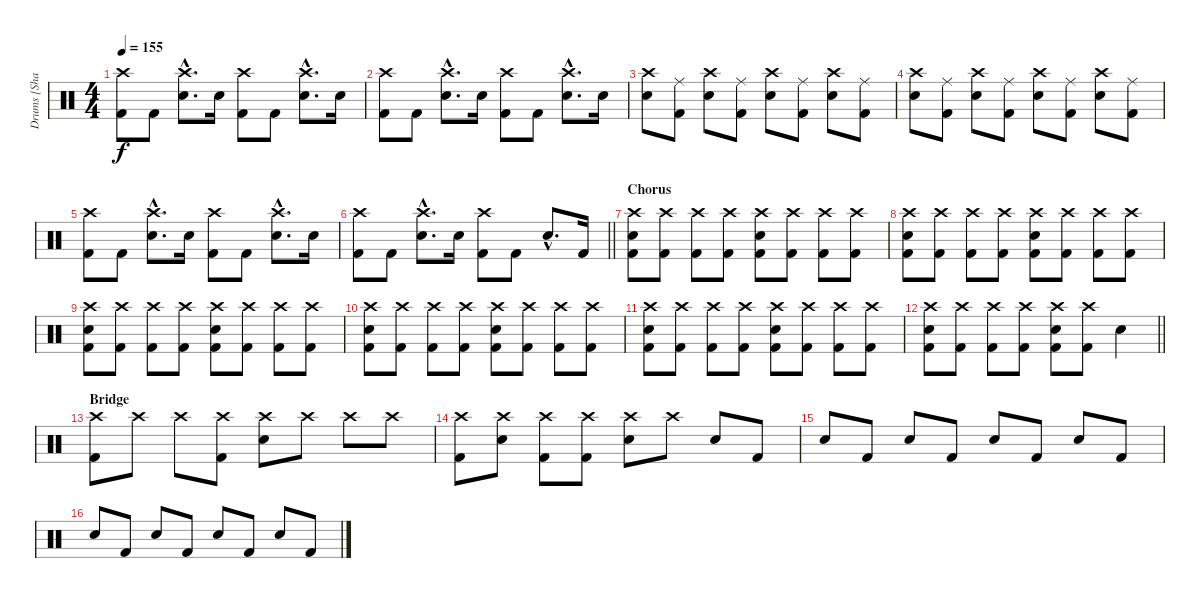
\track ("Drums [Shannon Larkin]" "Drums [Sha") {instrument percussion}
\staff {score}
\articulation defaults
\ts (4 4)
\tempo 155
\clef neutral
\ks c
("Crash high (hit)" "Kick (hit) 2").8{dy f} "Kick (hit) 2".8 ("Crash high (hit)"{hac} "Electric Snare (hit)"{hac}).8{d} "Electric Snare (hit)".16 ("Crash high (hit)" "Kick (hit) 2").8 "Kick (hit) 2".8 ("Crash high (hit)"{hac} "Electric Snare (hit)"{hac}).8{d} "Electric Snare (hit)".16 |
("Crash high (hit)" "Kick (hit) 2").8 "Kick (hit) 2".8 ("Crash high (hit)"{hac} "Electric Snare (hit)"{hac}).8{d} "Electric Snare (hit)".16 ("Crash high (hit)" "Kick (hit) 2").8 "Kick (hit) 2".8 ("Crash high (hit)"{hac} "Electric Snare (hit)"{hac}).8{d} "Electric Snare (hit)".16 |
("Crash high (hit)" "Electric Snare (hit)").8 ("Ride (middle)" "Kick (hit) 2").8 ("Crash high (hit)" "Electric Snare (hit)").8 ("Ride (middle)" "Kick (hit) 2").8 ("Crash high (hit)" "Electric Snare (hit)").8 ("Ride (middle)" "Kick (hit) 2").8 ("Crash high (hit)" "Electric Snare (hit)").8 ("Ride (middle)" "Kick (hit) 2").8 |
("Crash high (hit)" "Electric Snare (hit)").8 ("Ride (middle)" "Kick (hit) 2").8 ("Crash high (hit)" "Electric Snare (hit)").8 ("Ride (middle)" "Kick (hit) 2").8 ("Crash high (hit)" "Electric Snare (hit)").8 ("Ride (middle)" "Kick (hit) 2").8 ("Crash high (hit)" "Electric Snare (hit)").8 ("Ride (middle)" "Kick (hit) 2").8 |
("Crash high (hit)" "Kick (hit) 2").8 "Kick (hit) 2".8 ("Crash high (hit)"{hac} "Electric Snare (hit)"{hac}).8{d} "Electric Snare (hit)".16 ("Crash high (hit)" "Kick (hit) 2").8 "Kick (hit) 2".8 ("Crash high (hit)"{hac} "Electric Snare (hit)"{hac}).8{d} "Electric Snare (hit)".16 |
\barLineRight lightlight
("Crash high (hit)" "Kick (hit) 2").8 "Kick (hit) 2".8 ("Crash high (hit)"{hac} "Electric Snare (hit)"{hac}).8{d} "Electric Snare (hit)".16 ("Crash high (hit)" "Kick (hit) 2").8 "Kick (hit) 2".8 "Electric Snare (hit)"{hac}.8{d} "Kick (hit) 2".16 |
\section ("" "Chorus")
("Crash high (hit)" "Electric Snare (hit)" "Kick (hit) 2").8 ("Crash high (hit)" "Kick (hit) 2").8 ("Crash high (hit)" "Kick (hit) 2").8 ("Crash high (hit)" "Kick (hit) 2").8 ("Crash high (hit)" "Electric Snare (hit)" "Kick (hit) 2").8 ("Crash high (hit)" "Kick (hit) 2").8 ("Crash high (hit)" "Kick (hit) 2").8 ("Crash high (hit)" "Kick (hit) 2").8 |
("Crash high (hit)" "Electric Snare (hit)" "Kick (hit) 2").8 ("Crash high (hit)" "Kick (hit) 2").8 ("Crash high (hit)" "Kick (hit) 2").8 ("Crash high (hit)" "Kick (hit) 2").8 ("Crash high (hit)" "Electric Snare (hit)" "Kick (hit) 2").8 ("Crash high (hit)" "Kick (hit) 2").8 ("Crash high (hit)" "Kick (hit) 2").8 ("Crash high (hit)" "Kick (hit) 2").8 |
("Crash high (hit)" "Electric Snare (hit)" "Kick (hit) 2").8 ("Crash high (hit)" "Kick (hit) 2").8 ("Crash high (hit)" "Kick (hit) 2").8 ("Crash high (hit)" "Kick (hit) 2").8 ("Crash high (hit)" "Electric Snare (hit)" "Kick (hit) 2").8 ("Crash high (hit)" "Kick (hit) 2").8 ("Crash high (hit)" "Kick (hit) 2").8 ("Crash high (hit)" "Kick (hit) 2").8 |
("Crash high (hit)" "Electric Snare (hit)" "Kick (hit) 2").8 ("Crash high (hit)" "Kick (hit) 2").8 ("Crash high (hit)" "Kick (hit) 2").8 ("Crash high (hit)" "Kick (hit) 2").8 ("Crash high (hit)" "Electric Snare (hit)" "Kick (hit) 2").8 ("Crash high (hit)" "Kick (hit) 2").8 ("Crash high (hit)" "Kick (hit) 2").8 ("Crash high (hit)" "Kick (hit) 2").8 |
("Crash high (hit)" "Electric Snare (hit)" "Kick (hit) 2").8 ("Crash high (hit)" "Kick (hit) 2").8 ("Crash high (hit)" "Kick (hit) 2").8 ("Crash high (hit)" "Kick (hit) 2").8 ("Crash high (hit)" "Electric Snare (hit)" "Kick (hit) 2").8 ("Crash high (hit)" "Kick (hit) 2").8 ("Crash high (hit)" "Kick (hit) 2").8 ("Crash high (hit)" "Kick (hit) 2").8 |
\barLineRight lightlight
("Crash high (hit)" "Electric Snare (hit)" "Kick (hit) 2").8 ("Crash high (hit)" "Kick (hit) 2").8 ("Crash high (hit)" "Kick (hit) 2").8 ("Crash high (hit)" "Kick (hit) 2").8 ("Crash high (hit)" "Electric Snare (hit)" "Kick (hit) 2").8 ("Crash high (hit)" "Kick (hit) 2").8 "Electric Snare (hit)".4 |
\section ("" "Bridge")
("Crash high (hit)" "Kick (hit) 2").8 "Crash high (hit)".8 "Crash high (hit)".8 ("Crash high (hit)" "Kick (hit) 2").8 ("Crash high (hit)" "Electric Snare (hit)").8 "Crash high (hit)".8 "Crash high (hit)".8 "Crash high (hit)".8 |
("Crash high (hit)" "Kick (hit) 2").8 ("Crash high (hit)" "Electric Snare (hit)").8 ("Crash high (hit)" "Kick (hit) 2").8 ("Crash high (hit)" "Kick (hit) 2").8 ("Crash high (hit)" "Electric Snare (hit)").8 "Crash high (hit)".8 "Electric Snare (hit)".8 "Kick (hit) 2".8 |
"Electric Snare (hit)".8 "Kick (hit) 2".8 "Electric Snare (hit)".8 "Kick (hit) 2".8 "Electric Snare (hit)".8 "Kick (hit) 2".8 "Electric Snare (hit)".8 "Kick (hit) 2".8 |
"Electric Snare (hit)".8 "Kick (hit) 2".8 "Electric Snare (hit)".8 "Kick (hit) 2".8 "Electric Snare (hit)".8 "Kick (hit) 2".8 "Electric Snare (hit)".8 "Kick (hit) 2".8
